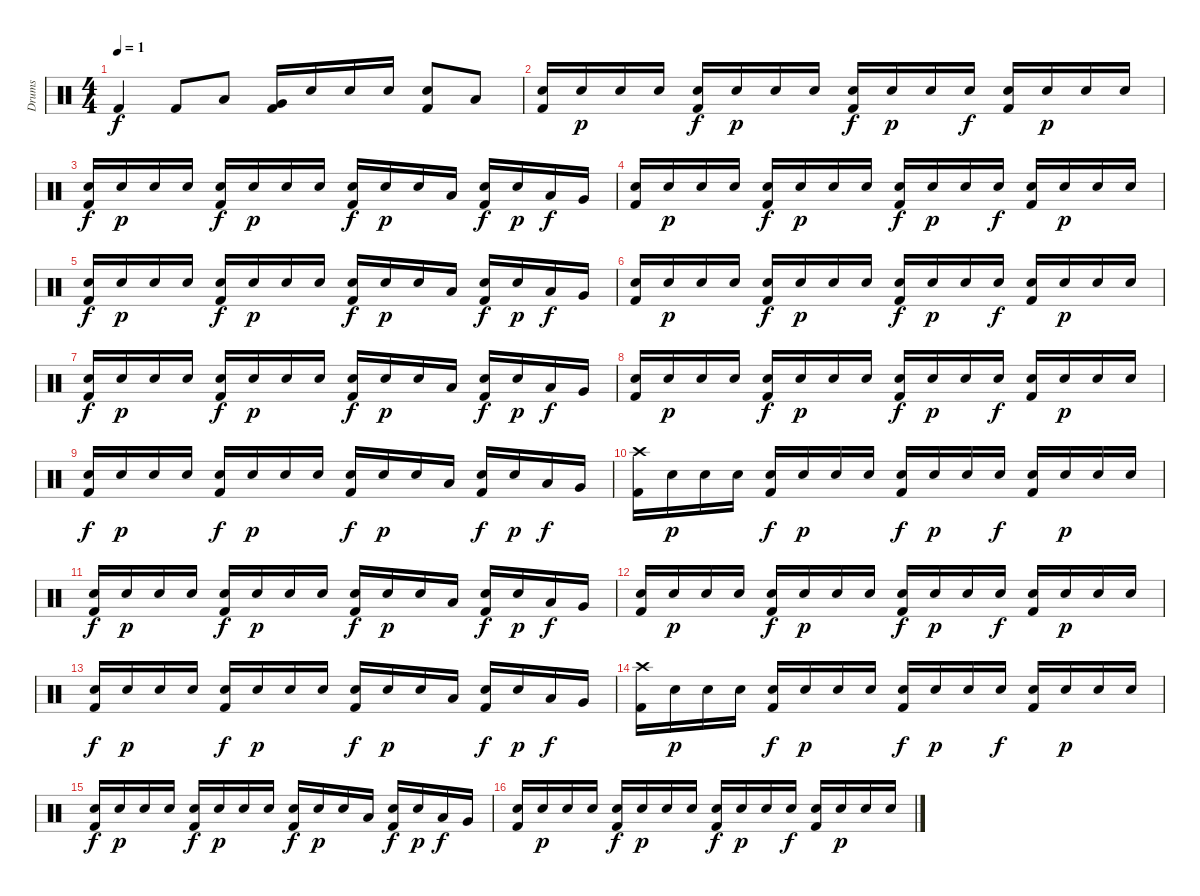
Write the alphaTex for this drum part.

\track ("Drums" "Drums") {instrument percussion}
\staff {score}
\articulation defaults
\ts (4 4)
\tempo 1
\clef neutral
\ks c "Kick (hit) 2".4{dy f} "Kick (hit) 2".8 "Low Tom (hit)".8
("Very Low Tom (hit)" "Kick (hit) 2").16 "Snare (hit) 2".16 "Snare (hit) 2".16 "Snare (hit) 2".16 ("Snare (hit) 2" "Kick (hit) 2").8 "Low Floor Tom (hit)".8 |
("Snare (hit) 2" "Kick (hit) 2").16 "Snare (hit) 2".16{dy p} "Snare (hit) 2".16 "Snare (hit) 2".16 ("Snare (hit) 2" "Kick (hit) 2").16{dy f} "Snare (hit) 2".16{dy p} "Snare (hit) 2".16 "Snare (hit) 2".16 ("Snare (hit) 2" "Kick (hit) 2").16{dy f} "Snare (hit) 2".16{dy p} "Snare (hit) 2".16 "Snare (hit) 2".16{dy f} ("Snare (hit) 2" "Kick (hit) 2").16 "Snare (hit) 2".16{dy p} "Snare (hit) 2".16 "Snare (hit) 2".16 |
("Snare (hit) 2" "Kick (hit) 2").16{dy f} "Snare (hit) 2".16{dy p} "Snare (hit) 2".16 "Snare (hit) 2".16 ("Snare (hit) 2" "Kick (hit) 2").16{dy f} "Snare (hit) 2".16{dy p} "Snare (hit) 2".16 "Snare (hit) 2".16 ("Snare (hit) 2" "Kick (hit) 2").16{dy f} "Snare (hit) 2".16{dy p} "Snare (hit) 2".16 "Low Tom (hit)".16 ("Snare (hit) 2" "Kick (hit) 2").16{dy f} "Snare (hit) 2".16{dy p} "Low Tom (hit)".16{dy f} "Very Low Tom (hit)".16 |
("Snare (hit) 2" "Kick (hit) 2").16 "Snare (hit) 2".16{dy p} "Snare (hit) 2".16 "Snare (hit) 2".16 ("Snare (hit) 2" "Kick (hit) 2").16{dy f} "Snare (hit) 2".16{dy p} "Snare (hit) 2".16 "Snare (hit) 2".16 ("Snare (hit) 2" "Kick (hit) 2").16{dy f} "Snare (hit) 2".16{dy p} "Snare (hit) 2".16 "Snare (hit) 2".16{dy f} ("Snare (hit) 2" "Kick (hit) 2").16 "Snare (hit) 2".16{dy p} "Snare (hit) 2".16 "Snare (hit) 2".16 |
("Snare (hit) 2" "Kick (hit) 2").16{dy f} "Snare (hit) 2".16{dy p} "Snare (hit) 2".16 "Snare (hit) 2".16 ("Snare (hit) 2" "Kick (hit) 2").16{dy f} "Snare (hit) 2".16{dy p} "Snare (hit) 2".16 "Snare (hit) 2".16 ("Snare (hit) 2" "Kick (hit) 2").16{dy f} "Snare (hit) 2".16{dy p} "Snare (hit) 2".16 "Low Tom (hit)".16 ("Snare (hit) 2" "Kick (hit) 2").16{dy f} "Snare (hit) 2".16{dy p} "Low Tom (hit)".16{dy f} "Very Low Tom (hit)".16 |
("Snare (hit) 2" "Kick (hit) 2").16 "Snare (hit) 2".16{dy p} "Snare (hit) 2".16 "Snare (hit) 2".16 ("Snare (hit) 2" "Kick (hit) 2").16{dy f} "Snare (hit) 2".16{dy p} "Snare (hit) 2".16 "Snare (hit) 2".16 ("Snare (hit) 2" "Kick (hit) 2").16{dy f} "Snare (hit) 2".16{dy p} "Snare (hit) 2".16 "Snare (hit) 2".16{dy f} ("Snare (hit) 2" "Kick (hit) 2").16 "Snare (hit) 2".16{dy p} "Snare (hit) 2".16 "Snare (hit) 2".16 |
("Snare (hit) 2" "Kick (hit) 2").16{dy f} "Snare (hit) 2".16{dy p} "Snare (hit) 2".16 "Snare (hit) 2".16 ("Snare (hit) 2" "Kick (hit) 2").16{dy f} "Snare (hit) 2".16{dy p} "Snare (hit) 2".16 "Snare (hit) 2".16 ("Snare (hit) 2" "Kick (hit) 2").16{dy f} "Snare (hit) 2".16{dy p} "Snare (hit) 2".16 "Low Tom (hit)".16 ("Snare (hit) 2" "Kick (hit) 2").16{dy f} "Snare (hit) 2".16{dy p} "Low Tom (hit)".16{dy f} "Very Low Tom (hit)".16 |
("Snare (hit) 2" "Kick (hit) 2").16 "Snare (hit) 2".16{dy p} "Snare (hit) 2".16 "Snare (hit) 2".16 ("Snare (hit) 2" "Kick (hit) 2").16{dy f} "Snare (hit) 2".16{dy p} "Snare (hit) 2".16 "Snare (hit) 2".16 ("Snare (hit) 2" "Kick (hit) 2").16{dy f} "Snare (hit) 2".16{dy p} "Snare (hit) 2".16 "Snare (hit) 2".16{dy f} ("Snare (hit) 2" "Kick (hit) 2").16 "Snare (hit) 2".16{dy p} "Snare (hit) 2".16 "Snare (hit) 2".16 |
("Snare (hit) 2" "Kick (hit) 2").16{dy f} "Snare (hit) 2".16{dy p} "Snare (hit) 2".16 "Snare (hit) 2".16 ("Snare (hit) 2" "Kick (hit) 2").16{dy f} "Snare (hit) 2".16{dy p} "Snare (hit) 2".16 "Snare (hit) 2".16 ("Snare (hit) 2" "Kick (hit) 2").16{dy f} "Snare (hit) 2".16{dy p} "Snare (hit) 2".16 "Low Tom (hit)".16 ("Snare (hit) 2" "Kick (hit) 2").16{dy f} "Snare (hit) 2".16{dy p} "Low Tom (hit)".16{dy f} "Very Low Tom (hit)".16 |
("Kick (hit) 2" "Crash high (hit)").16 "Snare (hit) 2".16{dy p} "Snare (hit) 2".16 "Snare (hit) 2".16 ("Snare (hit) 2" "Kick (hit) 2").16{dy f} "Snare (hit) 2".16{dy p} "Snare (hit) 2".16 "Snare (hit) 2".16 ("Snare (hit) 2" "Kick (hit) 2").16{dy f} "Snare (hit) 2".16{dy p} "Snare (hit) 2".16 "Snare (hit) 2".16{dy f} ("Snare (hit) 2" "Kick (hit) 2").16 "Snare (hit) 2".16{dy p} "Snare (hit) 2".16 "Snare (hit) 2".16 |
("Snare (hit) 2" "Kick (hit) 2").16{dy f} "Snare (hit) 2".16{dy p} "Snare (hit) 2".16 "Snare (hit) 2".16 ("Snare (hit) 2" "Kick (hit) 2").16{dy f} "Snare (hit) 2".16{dy p} "Snare (hit) 2".16 "Snare (hit) 2".16 ("Snare (hit) 2" "Kick (hit) 2").16{dy f} "Snare (hit) 2".16{dy p} "Snare (hit) 2".16 "Low Tom (hit)".16 ("Snare (hit) 2" "Kick (hit) 2").16{dy f} "Snare (hit) 2".16{dy p} "Low Tom (hit)".16{dy f} "Very Low Tom (hit)".16 |
("Snare (hit) 2" "Kick (hit) 2").16 "Snare (hit) 2".16{dy p} "Snare (hit) 2".16 "Snare (hit) 2".16 ("Snare (hit) 2" "Kick (hit) 2").16{dy f} "Snare (hit) 2".16{dy p} "Snare (hit) 2".16 "Snare (hit) 2".16 ("Snare (hit) 2" "Kick (hit) 2").16{dy f} "Snare (hit) 2".16{dy p} "Snare (hit) 2".16 "Snare (hit) 2".16{dy f} ("Snare (hit) 2" "Kick (hit) 2").16 "Snare (hit) 2".16{dy p} "Snare (hit) 2".16 "Snare (hit) 2".16 |
("Snare (hit) 2" "Kick (hit) 2").16{dy f} "Snare (hit) 2".16{dy p} "Snare (hit) 2".16 "Snare (hit) 2".16 ("Snare (hit) 2" "Kick (hit) 2").16{dy f} "Snare (hit) 2".16{dy p} "Snare (hit) 2".16 "Snare (hit) 2".16 ("Snare (hit) 2" "Kick (hit) 2").16{dy f} "Snare (hit) 2".16{dy p} "Snare (hit) 2".16 "Low Tom (hit)".16 ("Snare (hit) 2" "Kick (hit) 2").16{dy f} "Snare (hit) 2".16{dy p} "Low Tom (hit)".16{dy f} "Very Low Tom (hit)".16 |
("Kick (hit) 2" "Crash high (hit)").16 "Snare (hit) 2".16{dy p} "Snare (hit) 2".16 "Snare (hit) 2".16 ("Snare (hit) 2" "Kick (hit) 2").16{dy f} "Snare (hit) 2".16{dy p} "Snare (hit) 2".16 "Snare (hit) 2".16 ("Snare (hit) 2" "Kick (hit) 2").16{dy f} "Snare (hit) 2".16{dy p} "Snare (hit) 2".16 "Snare (hit) 2".16{dy f} ("Snare (hit) 2" "Kick (hit) 2").16 "Snare (hit) 2".16{dy p} "Snare (hit) 2".16 "Snare (hit) 2".16 |
("Snare (hit) 2" "Kick (hit) 2").16{dy f} "Snare (hit) 2".16{dy p} "Snare (hit) 2".16 "Snare (hit) 2".16 ("Snare (hit) 2" "Kick (hit) 2").16{dy f} "Snare (hit) 2".16{dy p} "Snare (hit) 2".16 "Snare (hit) 2".16 ("Snare (hit) 2" "Kick (hit) 2").16{dy f} "Snare (hit) 2".16{dy p} "Snare (hit) 2".16 "Low Tom (hit)".16 ("Snare (hit) 2" "Kick (hit) 2").16{dy f} "Snare (hit) 2".16{dy p} "Low Tom (hit)".16{dy f} "Very Low Tom (hit)".16 |
("Snare (hit) 2" "Kick (hit) 2").16 "Snare (hit) 2".16{dy p} "Snare (hit) 2".16 "Snare (hit) 2".16 ("Snare (hit) 2" "Kick (hit) 2").16{dy f} "Snare (hit) 2".16{dy p} "Snare (hit) 2".16 "Snare (hit) 2".16 ("Snare (hit) 2" "Kick (hit) 2").16{dy f} "Snare (hit) 2".16{dy p} "Snare (hit) 2".16 "Snare (hit) 2".16{dy f} ("Snare (hit) 2" "Kick (hit) 2").16 "Snare (hit) 2".16{dy p} "Snare (hit) 2".16 "Snare (hit) 2".16
